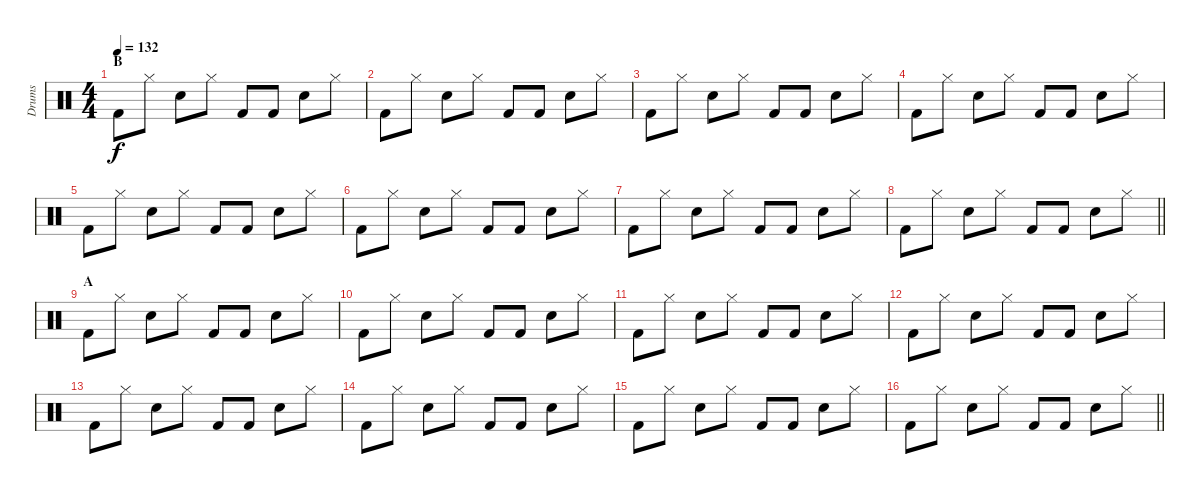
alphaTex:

\track ("Drums" "Drums") {instrument percussion}
\staff {score}
\articulation defaults
\ts (4 4)
\section ("" "B")
\tempo 132
\clef neutral
\ks c "Kick (hit) 2".8{dy f} "Hi-Hat (closed)".8 "Electric Snare (hit)".8 "Hi-Hat (closed)".8 "Kick (hit) 2".8 "Kick (hit) 2".8 "Electric Snare (hit)".8 "Hi-Hat (closed)".8
|
"Kick (hit) 2".8 "Hi-Hat (closed)".8 "Electric Snare (hit)".8 "Hi-Hat (closed)".8 "Kick (hit) 2".8 "Kick (hit) 2".8 "Electric Snare (hit)".8 "Hi-Hat (closed)".8 |
"Kick (hit) 2".8 "Hi-Hat (closed)".8 "Electric Snare (hit)".8 "Hi-Hat (closed)".8 "Kick (hit) 2".8 "Kick (hit) 2".8 "Electric Snare (hit)".8 "Hi-Hat (closed)".8 |
"Kick (hit) 2".8 "Hi-Hat (closed)".8 "Electric Snare (hit)".8 "Hi-Hat (closed)".8 "Kick (hit) 2".8 "Kick (hit) 2".8 "Electric Snare (hit)".8 "Hi-Hat (closed)".8 |
"Kick (hit) 2".8 "Hi-Hat (closed)".8 "Electric Snare (hit)".8 "Hi-Hat (closed)".8 "Kick (hit) 2".8 "Kick (hit) 2".8 "Electric Snare (hit)".8 "Hi-Hat (closed)".8 |
"Kick (hit) 2".8 "Hi-Hat (closed)".8 "Electric Snare (hit)".8 "Hi-Hat (closed)".8 "Kick (hit) 2".8 "Kick (hit) 2".8 "Electric Snare (hit)".8 "Hi-Hat (closed)".8 |
"Kick (hit) 2".8 "Hi-Hat (closed)".8 "Electric Snare (hit)".8 "Hi-Hat (closed)".8 "Kick (hit) 2".8 "Kick (hit) 2".8 "Electric Snare (hit)".8 "Hi-Hat (closed)".8 |
\barLineRight lightlight "Kick (hit) 2".8 "Hi-Hat (closed)".8 "Electric Snare (hit)".8 "Hi-Hat (closed)".8 "Kick (hit) 2".8 "Kick (hit) 2".8 "Electric Snare (hit)".8 "Hi-Hat (closed)".8
|
\section ("" "A")
"Kick (hit) 2".8 "Hi-Hat (closed)".8 "Electric Snare (hit)".8 "Hi-Hat (closed)".8 "Kick (hit) 2".8 "Kick (hit) 2".8 "Electric Snare (hit)".8 "Hi-Hat (closed)".8 |
"Kick (hit) 2".8 "Hi-Hat (closed)".8 "Electric Snare (hit)".8 "Hi-Hat (closed)".8 "Kick (hit) 2".8 "Kick (hit) 2".8 "Electric Snare (hit)".8 "Hi-Hat (closed)".8 |
"Kick (hit) 2".8 "Hi-Hat (closed)".8 "Electric Snare (hit)".8 "Hi-Hat (closed)".8 "Kick (hit) 2".8 "Kick (hit) 2".8 "Electric Snare (hit)".8 "Hi-Hat (closed)".8 |
"Kick (hit) 2".8 "Hi-Hat (closed)".8 "Electric Snare (hit)".8 "Hi-Hat (closed)".8 "Kick (hit) 2".8 "Kick (hit) 2".8 "Electric Snare (hit)".8 "Hi-Hat (closed)".8 |
"Kick (hit) 2".8 "Hi-Hat (closed)".8 "Electric Snare (hit)".8 "Hi-Hat (closed)".8 "Kick (hit) 2".8 "Kick (hit) 2".8 "Electric Snare (hit)".8 "Hi-Hat (closed)".8 |
"Kick (hit) 2".8 "Hi-Hat (closed)".8 "Electric Snare (hit)".8 "Hi-Hat (closed)".8 "Kick (hit) 2".8 "Kick (hit) 2".8 "Electric Snare (hit)".8 "Hi-Hat (closed)".8 |
"Kick (hit) 2".8 "Hi-Hat (closed)".8 "Electric Snare (hit)".8 "Hi-Hat (closed)".8 "Kick (hit) 2".8 "Kick (hit) 2".8 "Electric Snare (hit)".8 "Hi-Hat (closed)".8 |
\barLineRight lightlight "Kick (hit) 2".8 "Hi-Hat (closed)".8 "Electric Snare (hit)".8 "Hi-Hat (closed)".8 "Kick (hit) 2".8 "Kick (hit) 2".8 "Electric Snare (hit)".8 "Hi-Hat (closed)".8
